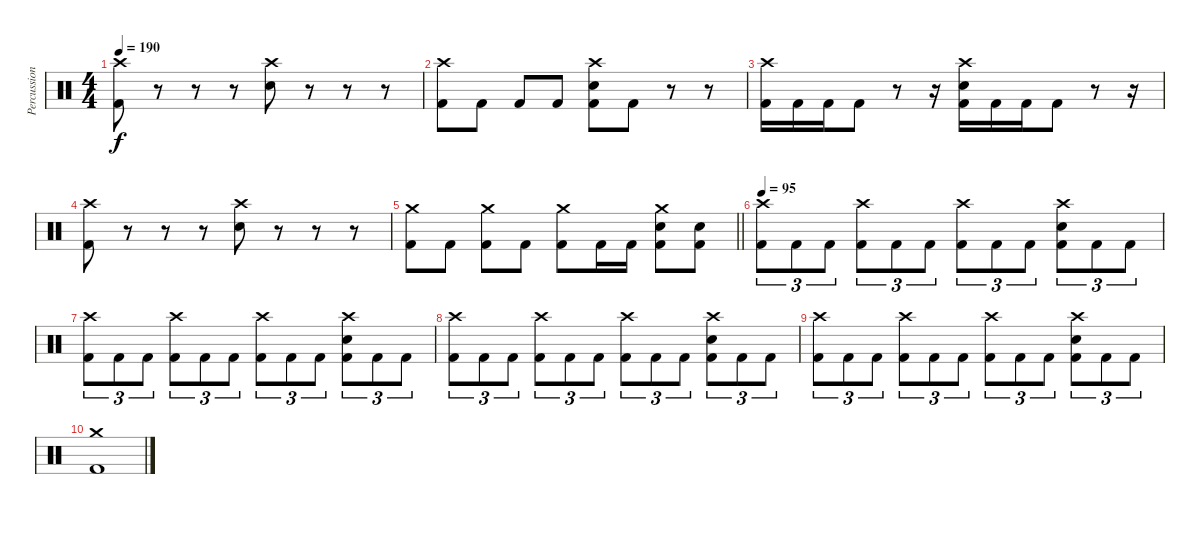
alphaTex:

\track ("Percussion" "Percussion") {instrument percussion}
\staff {score}
\articulation defaults
\ts (4 4)
\tempo 190
\clef neutral
\ks c
("Crash high (hit)" "Kick (hit) 2").8{dy f} r.8 r.8 r.8 ("Crash high (hit)" "Snare (hit) 2").8 r.8 r.8 r.8 |
("Crash high (hit)" "Kick (hit) 2").8 "Kick (hit) 2".8 "Kick (hit) 2".8 "Kick (hit) 2".8 ("Crash high (hit)" "Snare (hit) 2" "Kick (hit) 2").8 "Kick (hit) 2".8 r.8 r.8 |
("Crash high (hit)" "Kick (hit) 2").16 "Kick (hit) 2".16 "Kick (hit) 2".16 "Kick (hit) 2".8 r.8 r.16 ("Crash high (hit)" "Snare (hit) 2" "Kick (hit) 2").16 "Kick (hit) 2".16 "Kick (hit) 2".16 "Kick (hit) 2".8 r.8 r.16 |
("Crash high (hit)" "Kick (hit) 2").8 r.8 r.8 r.8 ("Crash high (hit)" "Snare (hit) 2").8 r.8 r.8 r.8 |
\barLineRight lightlight
("Crash medium (hit)" "Kick (hit) 2").8 "Kick (hit) 2".8 ("Crash medium (hit)" "Kick (hit) 2").8 "Kick (hit) 2".8 ("Crash medium (hit)" "Kick (hit) 2").8 "Kick (hit) 2".16 "Kick (hit) 2".16 ("Crash medium (hit)" "Snare (hit) 2" "Kick (hit) 2").8 ("Snare (hit) 2" "Kick (hit) 2").8 |
\tempo 95
("Crash high (hit)" "Kick (hit) 2").8{tu (3 2)} "Kick (hit) 2".8{tu (3 2)} "Kick (hit) 2".8{tu (3 2)} ("Crash high (hit)" "Kick (hit) 2").8{tu (3 2)} "Kick (hit) 2".8{tu (3 2)} "Kick (hit) 2".8{tu (3 2)} ("Crash high (hit)" "Kick (hit) 2").8{tu (3 2)} "Kick (hit) 2".8{tu (3 2)} "Kick (hit) 2".8{tu (3 2)} ("Crash high (hit)" "Snare (hit) 2" "Kick (hit) 2").8{tu (3 2)} "Kick (hit) 2".8{tu (3 2)} "Kick (hit) 2".8{tu (3 2)} |
("Crash high (hit)" "Kick (hit) 2").8{tu (3 2)} "Kick (hit) 2".8{tu (3 2)} "Kick (hit) 2".8{tu (3 2)} ("Crash high (hit)" "Kick (hit) 2").8{tu (3 2)} "Kick (hit) 2".8{tu (3 2)} "Kick (hit) 2".8{tu (3 2)} ("Crash high (hit)" "Kick (hit) 2").8{tu (3 2)} "Kick (hit) 2".8{tu (3 2)} "Kick (hit) 2".8{tu (3 2)} ("Crash high (hit)" "Snare (hit) 2" "Kick (hit) 2").8{tu (3 2)} "Kick (hit) 2".8{tu (3 2)} "Kick (hit) 2".8{tu (3 2)} |
("Crash high (hit)" "Kick (hit) 2").8{tu (3 2)} "Kick (hit) 2".8{tu (3 2)} "Kick (hit) 2".8{tu (3 2)} ("Crash high (hit)" "Kick (hit) 2").8{tu (3 2)} "Kick (hit) 2".8{tu (3 2)} "Kick (hit) 2".8{tu (3 2)} ("Crash high (hit)" "Kick (hit) 2").8{tu (3 2)} "Kick (hit) 2".8{tu (3 2)} "Kick (hit) 2".8{tu (3 2)} ("Crash high (hit)" "Snare (hit) 2" "Kick (hit) 2").8{tu (3 2)} "Kick (hit) 2".8{tu (3 2)} "Kick (hit) 2".8{tu (3 2)} |
("Crash high (hit)" "Kick (hit) 2").8{tu (3 2)} "Kick (hit) 2".8{tu (3 2)} "Kick (hit) 2".8{tu (3 2)} ("Crash high (hit)" "Kick (hit) 2").8{tu (3 2)} "Kick (hit) 2".8{tu (3 2)} "Kick (hit) 2".8{tu (3 2)} ("Crash high (hit)" "Kick (hit) 2").8{tu (3 2)} "Kick (hit) 2".8{tu (3 2)} "Kick (hit) 2".8{tu (3 2)} ("Crash high (hit)" "Snare (hit) 2" "Kick (hit) 2").8{tu (3 2)} "Kick (hit) 2".8{tu (3 2)} "Kick (hit) 2".8{tu (3 2)} |
("Crash medium (hit)" "Kick (hit) 2").1{volume 0}
